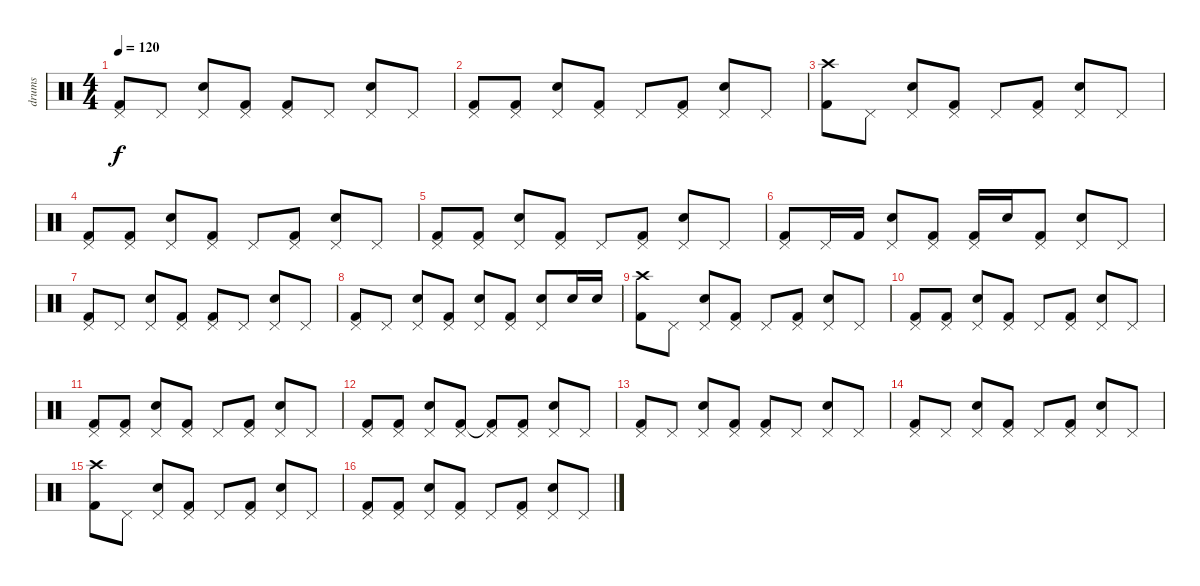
\track ("drums" "drums") {instrument percussion}
\staff {score}
\articulation defaults
\ts (4 4)
\tempo 120
\clef neutral
\ks c
("Pedal Hi-Hat (hit)" "Kick (hit) 2").8{dy f} "Pedal Hi-Hat (hit)".8 ("Pedal Hi-Hat (hit)" "Electric Snare (hit)").8 ("Pedal Hi-Hat (hit)" "Kick (hit) 2").8 ("Pedal Hi-Hat (hit)" "Kick (hit) 2").8 "Pedal Hi-Hat (hit)".8 ("Pedal Hi-Hat (hit)" "Electric Snare (hit)").8 "Pedal Hi-Hat (hit)".8 |
("Pedal Hi-Hat (hit)" "Kick (hit) 2").8 ("Pedal Hi-Hat (hit)" "Kick (hit) 2").8 ("Pedal Hi-Hat (hit)" "Electric Snare (hit)").8 ("Pedal Hi-Hat (hit)" "Kick (hit) 2").8 "Pedal Hi-Hat (hit)".8 ("Pedal Hi-Hat (hit)" "Kick (hit) 2").8 ("Pedal Hi-Hat (hit)" "Electric Snare (hit)").8 "Pedal Hi-Hat (hit)".8 |
("Crash high (hit)" "Kick (hit) 2").8 "Pedal Hi-Hat (hit)".8 ("Pedal Hi-Hat (hit)" "Electric Snare (hit)").8 ("Pedal Hi-Hat (hit)" "Kick (hit) 2").8 "Pedal Hi-Hat (hit)".8 ("Pedal Hi-Hat (hit)" "Kick (hit) 2").8 ("Pedal Hi-Hat (hit)" "Electric Snare (hit)").8 "Pedal Hi-Hat (hit)".8 |
("Pedal Hi-Hat (hit)" "Kick (hit) 2").8 ("Pedal Hi-Hat (hit)" "Kick (hit) 2").8 ("Pedal Hi-Hat (hit)" "Electric Snare (hit)").8 ("Pedal Hi-Hat (hit)" "Kick (hit) 2").8 "Pedal Hi-Hat (hit)".8 ("Pedal Hi-Hat (hit)" "Kick (hit) 2").8 ("Pedal Hi-Hat (hit)" "Electric Snare (hit)").8 "Pedal Hi-Hat (hit)".8 |
("Pedal Hi-Hat (hit)" "Kick (hit) 2").8 ("Pedal Hi-Hat (hit)" "Kick (hit) 2").8 ("Pedal Hi-Hat (hit)" "Electric Snare (hit)").8 ("Pedal Hi-Hat (hit)" "Kick (hit) 2").8 "Pedal Hi-Hat (hit)".8 ("Pedal Hi-Hat (hit)" "Kick (hit) 2").8 ("Pedal Hi-Hat (hit)" "Electric Snare (hit)").8 "Pedal Hi-Hat (hit)".8 |
("Pedal Hi-Hat (hit)" "Kick (hit) 2").8 "Pedal Hi-Hat (hit)".16 "Kick (hit) 2".16 ("Pedal Hi-Hat (hit)" "Electric Snare (hit)").8 ("Pedal Hi-Hat (hit)" "Kick (hit) 2").8 ("Pedal Hi-Hat (hit)" "Kick (hit) 2").16 "Electric Snare (hit)".16 ("Pedal Hi-Hat (hit)" "Kick (hit) 2").8 ("Pedal Hi-Hat (hit)" "Electric Snare (hit)").8 "Pedal Hi-Hat (hit)".8 |
("Pedal Hi-Hat (hit)" "Kick (hit) 2").8 "Pedal Hi-Hat (hit)".8 ("Pedal Hi-Hat (hit)" "Electric Snare (hit)").8 ("Pedal Hi-Hat (hit)" "Kick (hit) 2").8 ("Pedal Hi-Hat (hit)" "Kick (hit) 2").8 "Pedal Hi-Hat (hit)".8 ("Pedal Hi-Hat (hit)" "Electric Snare (hit)").8 "Pedal Hi-Hat (hit)".8 |
("Pedal Hi-Hat (hit)" "Kick (hit) 2").8 "Pedal Hi-Hat (hit)".8 ("Pedal Hi-Hat (hit)" "Electric Snare (hit)").8 ("Pedal Hi-Hat (hit)" "Kick (hit) 2").8 ("Pedal Hi-Hat (hit)" "Electric Snare (hit)").8 ("Pedal Hi-Hat (hit)" "Kick (hit) 2").8 ("Pedal Hi-Hat (hit)" "Electric Snare (hit)").8 "Electric Snare (hit)".16 "Electric Snare (hit)".16 |
("Crash high (hit)" "Kick (hit) 2").8 "Pedal Hi-Hat (hit)".8 ("Pedal Hi-Hat (hit)" "Electric Snare (hit)").8 ("Pedal Hi-Hat (hit)" "Kick (hit) 2").8 "Pedal Hi-Hat (hit)".8 ("Pedal Hi-Hat (hit)" "Kick (hit) 2").8 ("Pedal Hi-Hat (hit)" "Electric Snare (hit)").8 "Pedal Hi-Hat (hit)".8 |
("Pedal Hi-Hat (hit)" "Kick (hit) 2").8 ("Pedal Hi-Hat (hit)" "Kick (hit) 2").8 ("Pedal Hi-Hat (hit)" "Electric Snare (hit)").8 ("Pedal Hi-Hat (hit)" "Kick (hit) 2").8 "Pedal Hi-Hat (hit)".8 ("Pedal Hi-Hat (hit)" "Kick (hit) 2").8 ("Pedal Hi-Hat (hit)" "Electric Snare (hit)").8 "Pedal Hi-Hat (hit)".8 |
("Pedal Hi-Hat (hit)" "Kick (hit) 2").8 ("Pedal Hi-Hat (hit)" "Kick (hit) 2").8 ("Pedal Hi-Hat (hit)" "Electric Snare (hit)").8 ("Pedal Hi-Hat (hit)" "Kick (hit) 2").8 "Pedal Hi-Hat (hit)".8 ("Pedal Hi-Hat (hit)" "Kick (hit) 2").8 ("Pedal Hi-Hat (hit)" "Electric Snare (hit)").8 "Pedal Hi-Hat (hit)".8 |
("Pedal Hi-Hat (hit)" "Kick (hit) 2").8 ("Pedal Hi-Hat (hit)" "Kick (hit) 2").8 ("Pedal Hi-Hat (hit)" "Electric Snare (hit)").8 ("Pedal Hi-Hat (hit)" "Kick (hit) 2").8 ("Pedal Hi-Hat (hit)" "Kick (hit) 2"{t}).8 ("Pedal Hi-Hat (hit)" "Kick (hit) 2").8 ("Pedal Hi-Hat (hit)" "Electric Snare (hit)").8 "Pedal Hi-Hat (hit)".8 |
("Pedal Hi-Hat (hit)" "Kick (hit) 2").8 "Pedal Hi-Hat (hit)".8 ("Pedal Hi-Hat (hit)" "Electric Snare (hit)").8 ("Pedal Hi-Hat (hit)" "Kick (hit) 2").8 ("Pedal Hi-Hat (hit)" "Kick (hit) 2").8 "Pedal Hi-Hat (hit)".8 ("Pedal Hi-Hat (hit)" "Electric Snare (hit)").8 "Pedal Hi-Hat (hit)".8 |
("Pedal Hi-Hat (hit)" "Kick (hit) 2").8 "Pedal Hi-Hat (hit)".8 ("Pedal Hi-Hat (hit)" "Electric Snare (hit)").8 ("Pedal Hi-Hat (hit)" "Kick (hit) 2").8 "Pedal Hi-Hat (hit)".8 ("Pedal Hi-Hat (hit)" "Kick (hit) 2").8 ("Pedal Hi-Hat (hit)" "Electric Snare (hit)").8 "Pedal Hi-Hat (hit)".8 |
("Crash high (hit)" "Kick (hit) 2").8 "Pedal Hi-Hat (hit)".8 ("Pedal Hi-Hat (hit)" "Electric Snare (hit)").8 ("Pedal Hi-Hat (hit)" "Kick (hit) 2").8 "Pedal Hi-Hat (hit)".8 ("Pedal Hi-Hat (hit)" "Kick (hit) 2").8 ("Pedal Hi-Hat (hit)" "Electric Snare (hit)").8 "Pedal Hi-Hat (hit)".8 |
("Pedal Hi-Hat (hit)" "Kick (hit) 2").8 ("Pedal Hi-Hat (hit)" "Kick (hit) 2").8 ("Pedal Hi-Hat (hit)" "Electric Snare (hit)").8 ("Pedal Hi-Hat (hit)" "Kick (hit) 2").8 "Pedal Hi-Hat (hit)".8 ("Pedal Hi-Hat (hit)" "Kick (hit) 2").8 ("Pedal Hi-Hat (hit)" "Electric Snare (hit)").8 "Pedal Hi-Hat (hit)".8
